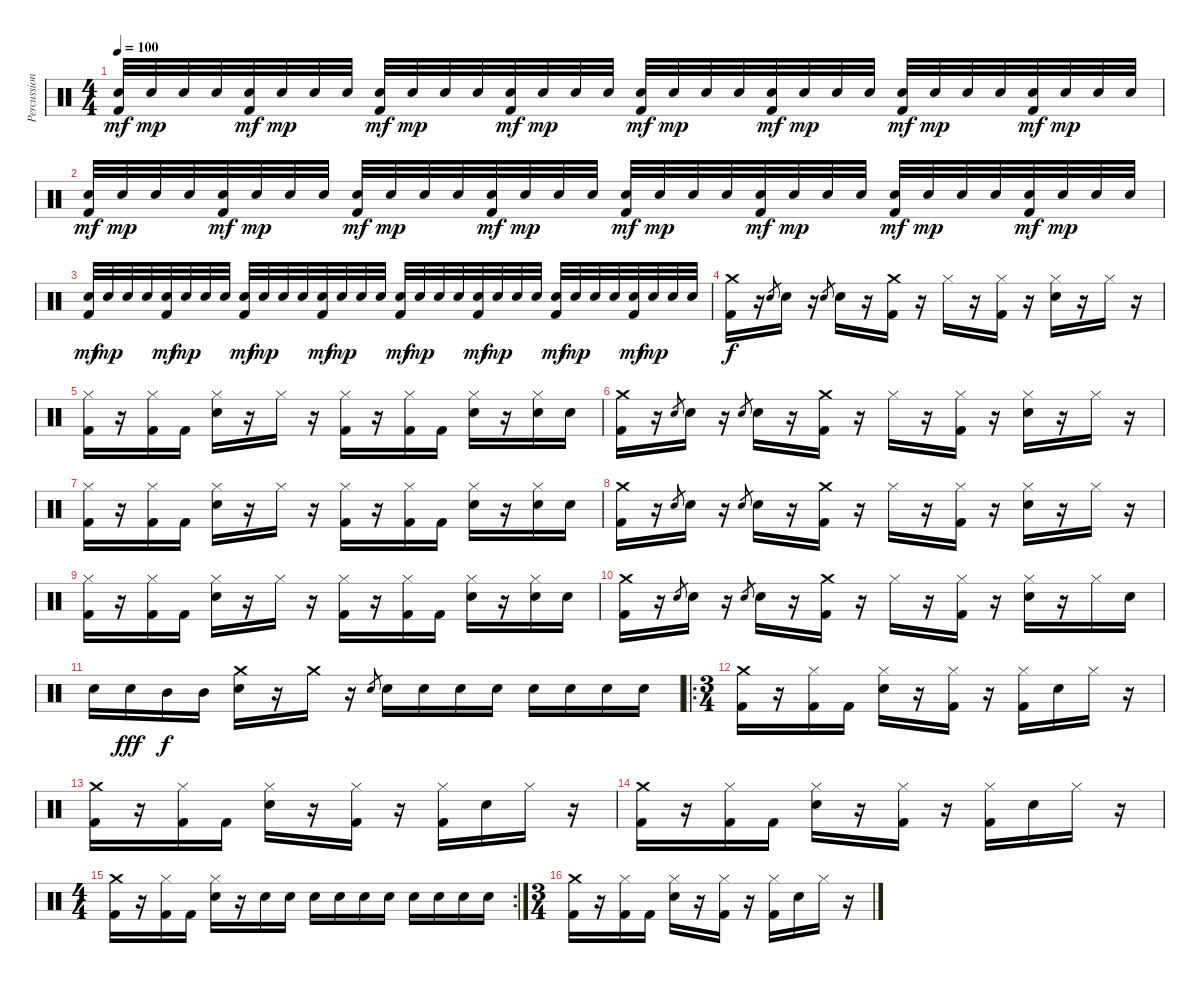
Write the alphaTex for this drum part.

\track ("Percussion" "Percussion") {instrument percussion}
\staff {score}
\articulation defaults
\ts (4 4)
\tempo 100
\clef neutral
\ks c
("Snare (hit) 2" "Kick (hit) 2").32{dy mf} "Snare (hit) 2".32{dy mp} "Snare (hit) 2".32 "Snare (hit) 2".32 ("Snare (hit) 2" "Kick (hit) 2").32{dy mf} "Snare (hit) 2".32{dy mp} "Snare (hit) 2".32 "Snare (hit) 2".32 ("Snare (hit) 2" "Kick (hit) 2").32{dy mf} "Snare (hit) 2".32{dy mp} "Snare (hit) 2".32 "Snare (hit) 2".32 ("Snare (hit) 2" "Kick (hit) 2").32{dy mf} "Snare (hit) 2".32{dy mp} "Snare (hit) 2".32 "Snare (hit) 2".32 ("Snare (hit) 2" "Kick (hit) 2").32{dy mf} "Snare (hit) 2".32{dy mp} "Snare (hit) 2".32 "Snare (hit) 2".32 ("Snare (hit) 2" "Kick (hit) 2").32{dy mf} "Snare (hit) 2".32{dy mp} "Snare (hit) 2".32 "Snare (hit) 2".32 ("Snare (hit) 2" "Kick (hit) 2").32{dy mf} "Snare (hit) 2".32{dy mp} "Snare (hit) 2".32 "Snare (hit) 2".32 ("Snare (hit) 2" "Kick (hit) 2").32{dy mf} "Snare (hit) 2".32{dy mp} "Snare (hit) 2".32 "Snare (hit) 2".32 |
("Snare (hit) 2" "Kick (hit) 2").32{dy mf} "Snare (hit) 2".32{dy mp} "Snare (hit) 2".32 "Snare (hit) 2".32 ("Snare (hit) 2" "Kick (hit) 2").32{dy mf} "Snare (hit) 2".32{dy mp} "Snare (hit) 2".32 "Snare (hit) 2".32 ("Snare (hit) 2" "Kick (hit) 2").32{dy mf} "Snare (hit) 2".32{dy mp} "Snare (hit) 2".32 "Snare (hit) 2".32 ("Snare (hit) 2" "Kick (hit) 2").32{dy mf} "Snare (hit) 2".32{dy mp} "Snare (hit) 2".32 "Snare (hit) 2".32 ("Snare (hit) 2" "Kick (hit) 2").32{dy mf} "Snare (hit) 2".32{dy mp} "Snare (hit) 2".32 "Snare (hit) 2".32 ("Snare (hit) 2" "Kick (hit) 2").32{dy mf} "Snare (hit) 2".32{dy mp} "Snare (hit) 2".32 "Snare (hit) 2".32 ("Snare (hit) 2" "Kick (hit) 2").32{dy mf} "Snare (hit) 2".32{dy mp} "Snare (hit) 2".32 "Snare (hit) 2".32 ("Snare (hit) 2" "Kick (hit) 2").32{dy mf} "Snare (hit) 2".32{dy mp} "Snare (hit) 2".32 "Snare (hit) 2".32 |
("Snare (hit) 2" "Kick (hit) 2").32{dy mf} "Snare (hit) 2".32{dy mp} "Snare (hit) 2".32 "Snare (hit) 2".32 ("Snare (hit) 2" "Kick (hit) 2").32{dy mf} "Snare (hit) 2".32{dy mp} "Snare (hit) 2".32 "Snare (hit) 2".32 ("Snare (hit) 2" "Kick (hit) 2").32{dy mf} "Snare (hit) 2".32{dy mp} "Snare (hit) 2".32 "Snare (hit) 2".32 ("Snare (hit) 2" "Kick (hit) 2").32{dy mf} "Snare (hit) 2".32{dy mp} "Snare (hit) 2".32 "Snare (hit) 2".32 ("Snare (hit) 2" "Kick (hit) 2").32{dy mf} "Snare (hit) 2".32{dy mp} "Snare (hit) 2".32 "Snare (hit) 2".32 ("Snare (hit) 2" "Kick (hit) 2").32{dy mf} "Snare (hit) 2".32{dy mp} "Snare (hit) 2".32 "Snare (hit) 2".32 ("Snare (hit) 2" "Kick (hit) 2").32{dy mf} "Snare (hit) 2".32{dy mp} "Snare (hit) 2".32 "Snare (hit) 2".32 ("Snare (hit) 2" "Kick (hit) 2").32{dy mf} "Snare (hit) 2".32{dy mp} "Snare (hit) 2".32 "Snare (hit) 2".32 |
("Crash medium (hit)" "Kick (hit) 2").16{dy f} r.16 "Snare (hit) 2".8{gr} "Snare (hit) 2".16 r.16 "Snare (hit) 2".8{gr} "Snare (hit) 2".16 r.16 ("Crash medium (hit)" "Kick (hit) 2").16 r.16 "Hi-Hat (closed)".16 r.16 ("Hi-Hat (closed)" "Kick (hit) 2").16 r.16 ("Hi-Hat (closed)" "Snare (hit) 2").16 r.16 "Hi-Hat (closed)".16 r.16 |
("Hi-Hat (closed)" "Kick (hit) 2").16 r.16 ("Hi-Hat (closed)" "Kick (hit) 2").16 "Kick (hit) 2".16 ("Hi-Hat (closed)" "Snare (hit) 2").16 r.16 "Hi-Hat (closed)".16 r.16 ("Hi-Hat (closed)" "Kick (hit) 2").16 r.16 ("Hi-Hat (closed)" "Kick (hit) 2").16 "Kick (hit) 2".16 ("Hi-Hat (closed)" "Snare (hit) 2").16 r.16 ("Hi-Hat (closed)" "Snare (hit) 2").16 "Snare (hit) 2".16 |
("Crash medium (hit)" "Kick (hit) 2").16 r.16 "Snare (hit) 2".8{gr} "Snare (hit) 2".16 r.16 "Snare (hit) 2".8{gr} "Snare (hit) 2".16 r.16 ("Crash medium (hit)" "Kick (hit) 2").16 r.16 "Hi-Hat (closed)".16 r.16 ("Hi-Hat (closed)" "Kick (hit) 2").16 r.16 ("Hi-Hat (closed)" "Snare (hit) 2").16 r.16 "Hi-Hat (closed)".16 r.16 |
("Hi-Hat (closed)" "Kick (hit) 2").16 r.16 ("Hi-Hat (closed)" "Kick (hit) 2").16 "Kick (hit) 2".16 ("Hi-Hat (closed)" "Snare (hit) 2").16 r.16 "Hi-Hat (closed)".16 r.16 ("Hi-Hat (closed)" "Kick (hit) 2").16 r.16 ("Hi-Hat (closed)" "Kick (hit) 2").16 "Kick (hit) 2".16 ("Hi-Hat (closed)" "Snare (hit) 2").16 r.16 ("Hi-Hat (closed)" "Snare (hit) 2").16 "Snare (hit) 2".16 |
("Crash medium (hit)" "Kick (hit) 2").16 r.16 "Snare (hit) 2".8{gr} "Snare (hit) 2".16 r.16 "Snare (hit) 2".8{gr} "Snare (hit) 2".16 r.16 ("Crash medium (hit)" "Kick (hit) 2").16 r.16 "Hi-Hat (closed)".16 r.16 ("Hi-Hat (closed)" "Kick (hit) 2").16 r.16 ("Hi-Hat (closed)" "Snare (hit) 2").16 r.16 "Hi-Hat (closed)".16 r.16 |
("Hi-Hat (closed)" "Kick (hit) 2").16 r.16 ("Hi-Hat (closed)" "Kick (hit) 2").16 "Kick (hit) 2".16 ("Hi-Hat (closed)" "Snare (hit) 2").16 r.16 "Hi-Hat (closed)".16 r.16 ("Hi-Hat (closed)" "Kick (hit) 2").16 r.16 ("Hi-Hat (closed)" "Kick (hit) 2").16 "Kick (hit) 2".16 ("Hi-Hat (closed)" "Snare (hit) 2").16 r.16 ("Hi-Hat (closed)" "Snare (hit) 2").16 "Snare (hit) 2".16 |
("Crash medium (hit)" "Kick (hit) 2").16 r.16 "Snare (hit) 2".8{gr} "Snare (hit) 2".16 r.16 "Snare (hit) 2".8{gr} "Snare (hit) 2".16 r.16 ("Crash medium (hit)" "Kick (hit) 2").16 r.16 "Hi-Hat (closed)".16 r.16 ("Hi-Hat (closed)" "Kick (hit) 2").16 r.16 ("Hi-Hat (closed)" "Snare (hit) 2").16 r.16 "Hi-Hat (closed)".16 "Snare (hit) 2".16 |
"Snare (hit) 2".16 "Snare (hit) 2".16{dy fff} "Mid Tom (hit)".16{dy f} "Mid Tom (hit)".16 ("Crash medium (hit)" "Snare (hit) 2").16 r.16 "Crash medium (hit)".16 r.16 "Snare (hit) 2".8{gr} "Snare (hit) 2".16 "Snare (hit) 2".16 "Snare (hit) 2".16 "Snare (hit) 2".16 "Snare (hit) 2".16 "Snare (hit) 2".16 "Snare (hit) 2".16 "Snare (hit) 2".16 |
\ro
\ts (3 4)
("Crash medium (hit)" "Kick (hit) 2").16 r.16 ("Hi-Hat (closed)" "Kick (hit) 2").16 "Kick (hit) 2".16 ("Hi-Hat (closed)" "Snare (hit) 2").16 r.16 ("Hi-Hat (closed)" "Kick (hit) 2").16 r.16 ("Hi-Hat (closed)" "Kick (hit) 2").16 "Snare (hit) 2".16 "Hi-Hat (closed)".16 r.16 |
("Crash medium (hit)" "Kick (hit) 2").16 r.16 ("Hi-Hat (closed)" "Kick (hit) 2").16 "Kick (hit) 2".16 ("Hi-Hat (closed)" "Snare (hit) 2").16 r.16 ("Hi-Hat (closed)" "Kick (hit) 2").16 r.16 ("Hi-Hat (closed)" "Kick (hit) 2").16 "Snare (hit) 2".16 "Hi-Hat (closed)".16 r.16 |
("Crash medium (hit)" "Kick (hit) 2").16 r.16 ("Hi-Hat (closed)" "Kick (hit) 2").16 "Kick (hit) 2".16 ("Hi-Hat (closed)" "Snare (hit) 2").16 r.16 ("Hi-Hat (closed)" "Kick (hit) 2").16 r.16 ("Hi-Hat (closed)" "Kick (hit) 2").16 "Snare (hit) 2".16 "Hi-Hat (closed)".16 r.16 |
\rc 2
\ts (4 4)
("Crash medium (hit)" "Kick (hit) 2").16 r.16 ("Hi-Hat (closed)" "Kick (hit) 2").16 "Kick (hit) 2".16 ("Hi-Hat (closed)" "Snare (hit) 2").16 r.16 "Snare (hit) 2".16 "Snare (hit) 2".16 "Snare (hit) 2".16 "Snare (hit) 2".16 "Snare (hit) 2".16 "Snare (hit) 2".16 "Snare (hit) 2".16 "Snare (hit) 2".16 "Snare (hit) 2".16 "Snare (hit) 2".16 |
\ts (3 4)
("Crash medium (hit)" "Kick (hit) 2").16 r.16 ("Hi-Hat (closed)" "Kick (hit) 2").16 "Kick (hit) 2".16 ("Hi-Hat (closed)" "Snare (hit) 2").16 r.16 ("Hi-Hat (closed)" "Kick (hit) 2").16 r.16 ("Hi-Hat (closed)" "Kick (hit) 2").16 "Snare (hit) 2".16 "Hi-Hat (closed)".16 r.16
